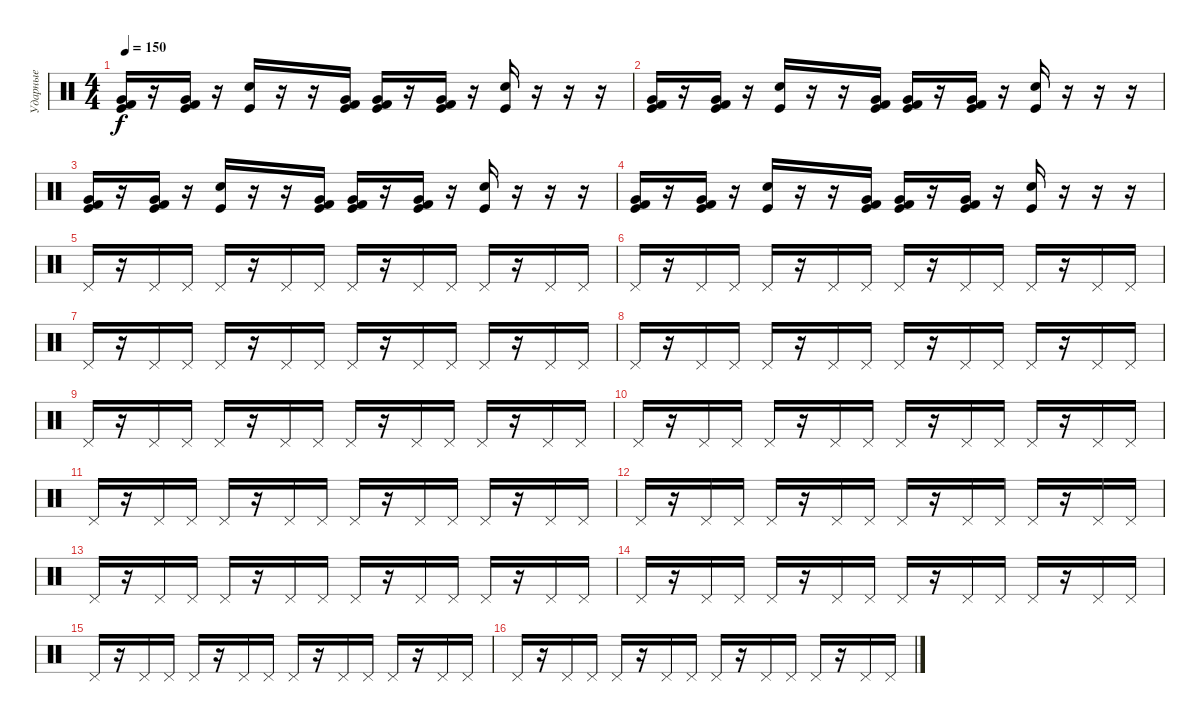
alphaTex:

\track ("Ударные" "Ударные") {instrument percussion}
\staff {score}
\articulation defaults
\ts (4 4)
\tempo 150
\clef neutral
\ks c
("Very Low Tom (hit)" "Kick (hit) 2" "Kick (hit)").16{dy f} r.16 ("Very Low Tom (hit)" "Kick (hit) 2" "Kick (hit)").16 r.16 ("Electric Snare (hit)" "Kick (hit)").16 r.16 r.16 ("Very Low Tom (hit)" "Kick (hit) 2" "Kick (hit)").16 ("Very Low Tom (hit)" "Kick (hit) 2" "Kick (hit)").16 r.16 ("Very Low Tom (hit)" "Kick (hit) 2" "Kick (hit)").16 r.16 ("Electric Snare (hit)" "Kick (hit)").16 r.16 r.16 r.16 |
("Very Low Tom (hit)" "Kick (hit) 2" "Kick (hit)").16 r.16 ("Very Low Tom (hit)" "Kick (hit) 2" "Kick (hit)").16 r.16 ("Electric Snare (hit)" "Kick (hit)").16 r.16 r.16 ("Very Low Tom (hit)" "Kick (hit) 2" "Kick (hit)").16 ("Very Low Tom (hit)" "Kick (hit) 2" "Kick (hit)").16 r.16 ("Very Low Tom (hit)" "Kick (hit) 2" "Kick (hit)").16 r.16 ("Electric Snare (hit)" "Kick (hit)").16 r.16 r.16 r.16 |
("Very Low Tom (hit)" "Kick (hit) 2" "Kick (hit)").16 r.16 ("Very Low Tom (hit)" "Kick (hit) 2" "Kick (hit)").16 r.16 ("Electric Snare (hit)" "Kick (hit)").16 r.16 r.16 ("Very Low Tom (hit)" "Kick (hit) 2" "Kick (hit)").16 ("Very Low Tom (hit)" "Kick (hit) 2" "Kick (hit)").16 r.16 ("Very Low Tom (hit)" "Kick (hit) 2" "Kick (hit)").16 r.16 ("Electric Snare (hit)" "Kick (hit)").16 r.16 r.16 r.16 |
("Very Low Tom (hit)" "Kick (hit) 2" "Kick (hit)").16 r.16 ("Very Low Tom (hit)" "Kick (hit) 2" "Kick (hit)").16 r.16 ("Electric Snare (hit)" "Kick (hit)").16 r.16 r.16 ("Very Low Tom (hit)" "Kick (hit) 2" "Kick (hit)").16 ("Very Low Tom (hit)" "Kick (hit) 2" "Kick (hit)").16 r.16 ("Very Low Tom (hit)" "Kick (hit) 2" "Kick (hit)").16 r.16 ("Electric Snare (hit)" "Kick (hit)").16 r.16 r.16 r.16 |
"Pedal Hi-Hat (hit)".16{volume 6} r.16 "Pedal Hi-Hat (hit)".16 "Pedal Hi-Hat (hit)".16 "Pedal Hi-Hat (hit)".16 r.16 "Pedal Hi-Hat (hit)".16 "Pedal Hi-Hat (hit)".16 "Pedal Hi-Hat (hit)".16 r.16 "Pedal Hi-Hat (hit)".16 "Pedal Hi-Hat (hit)".16 "Pedal Hi-Hat (hit)".16 r.16 "Pedal Hi-Hat (hit)".16 "Pedal Hi-Hat (hit)".16 |
"Pedal Hi-Hat (hit)".16 r.16 "Pedal Hi-Hat (hit)".16 "Pedal Hi-Hat (hit)".16 "Pedal Hi-Hat (hit)".16 r.16 "Pedal Hi-Hat (hit)".16 "Pedal Hi-Hat (hit)".16 "Pedal Hi-Hat (hit)".16 r.16 "Pedal Hi-Hat (hit)".16 "Pedal Hi-Hat (hit)".16 "Pedal Hi-Hat (hit)".16 r.16 "Pedal Hi-Hat (hit)".16 "Pedal Hi-Hat (hit)".16 |
"Pedal Hi-Hat (hit)".16 r.16 "Pedal Hi-Hat (hit)".16 "Pedal Hi-Hat (hit)".16 "Pedal Hi-Hat (hit)".16 r.16 "Pedal Hi-Hat (hit)".16 "Pedal Hi-Hat (hit)".16 "Pedal Hi-Hat (hit)".16 r.16 "Pedal Hi-Hat (hit)".16 "Pedal Hi-Hat (hit)".16 "Pedal Hi-Hat (hit)".16 r.16 "Pedal Hi-Hat (hit)".16 "Pedal Hi-Hat (hit)".16 |
"Pedal Hi-Hat (hit)".16 r.16 "Pedal Hi-Hat (hit)".16 "Pedal Hi-Hat (hit)".16 "Pedal Hi-Hat (hit)".16 r.16 "Pedal Hi-Hat (hit)".16 "Pedal Hi-Hat (hit)".16 "Pedal Hi-Hat (hit)".16 r.16 "Pedal Hi-Hat (hit)".16 "Pedal Hi-Hat (hit)".16 "Pedal Hi-Hat (hit)".16 r.16 "Pedal Hi-Hat (hit)".16 "Pedal Hi-Hat (hit)".16 |
"Pedal Hi-Hat (hit)".16 r.16 "Pedal Hi-Hat (hit)".16 "Pedal Hi-Hat (hit)".16 "Pedal Hi-Hat (hit)".16 r.16 "Pedal Hi-Hat (hit)".16 "Pedal Hi-Hat (hit)".16 "Pedal Hi-Hat (hit)".16 r.16 "Pedal Hi-Hat (hit)".16 "Pedal Hi-Hat (hit)".16 "Pedal Hi-Hat (hit)".16 r.16 "Pedal Hi-Hat (hit)".16 "Pedal Hi-Hat (hit)".16 |
"Pedal Hi-Hat (hit)".16 r.16 "Pedal Hi-Hat (hit)".16 "Pedal Hi-Hat (hit)".16 "Pedal Hi-Hat (hit)".16 r.16 "Pedal Hi-Hat (hit)".16 "Pedal Hi-Hat (hit)".16 "Pedal Hi-Hat (hit)".16 r.16 "Pedal Hi-Hat (hit)".16 "Pedal Hi-Hat (hit)".16 "Pedal Hi-Hat (hit)".16 r.16 "Pedal Hi-Hat (hit)".16 "Pedal Hi-Hat (hit)".16 |
"Pedal Hi-Hat (hit)".16 r.16 "Pedal Hi-Hat (hit)".16 "Pedal Hi-Hat (hit)".16 "Pedal Hi-Hat (hit)".16 r.16 "Pedal Hi-Hat (hit)".16 "Pedal Hi-Hat (hit)".16 "Pedal Hi-Hat (hit)".16 r.16 "Pedal Hi-Hat (hit)".16 "Pedal Hi-Hat (hit)".16 "Pedal Hi-Hat (hit)".16 r.16 "Pedal Hi-Hat (hit)".16 "Pedal Hi-Hat (hit)".16 |
"Pedal Hi-Hat (hit)".16 r.16 "Pedal Hi-Hat (hit)".16 "Pedal Hi-Hat (hit)".16 "Pedal Hi-Hat (hit)".16 r.16 "Pedal Hi-Hat (hit)".16 "Pedal Hi-Hat (hit)".16 "Pedal Hi-Hat (hit)".16 r.16 "Pedal Hi-Hat (hit)".16 "Pedal Hi-Hat (hit)".16 "Pedal Hi-Hat (hit)".16 r.16 "Pedal Hi-Hat (hit)".16 "Pedal Hi-Hat (hit)".16 |
"Pedal Hi-Hat (hit)".16 r.16 "Pedal Hi-Hat (hit)".16 "Pedal Hi-Hat (hit)".16 "Pedal Hi-Hat (hit)".16 r.16 "Pedal Hi-Hat (hit)".16 "Pedal Hi-Hat (hit)".16 "Pedal Hi-Hat (hit)".16 r.16 "Pedal Hi-Hat (hit)".16 "Pedal Hi-Hat (hit)".16 "Pedal Hi-Hat (hit)".16 r.16 "Pedal Hi-Hat (hit)".16 "Pedal Hi-Hat (hit)".16 |
"Pedal Hi-Hat (hit)".16 r.16 "Pedal Hi-Hat (hit)".16 "Pedal Hi-Hat (hit)".16 "Pedal Hi-Hat (hit)".16 r.16 "Pedal Hi-Hat (hit)".16 "Pedal Hi-Hat (hit)".16 "Pedal Hi-Hat (hit)".16 r.16 "Pedal Hi-Hat (hit)".16 "Pedal Hi-Hat (hit)".16 "Pedal Hi-Hat (hit)".16 r.16 "Pedal Hi-Hat (hit)".16 "Pedal Hi-Hat (hit)".16 |
"Pedal Hi-Hat (hit)".16 r.16 "Pedal Hi-Hat (hit)".16 "Pedal Hi-Hat (hit)".16 "Pedal Hi-Hat (hit)".16 r.16 "Pedal Hi-Hat (hit)".16 "Pedal Hi-Hat (hit)".16 "Pedal Hi-Hat (hit)".16 r.16 "Pedal Hi-Hat (hit)".16 "Pedal Hi-Hat (hit)".16 "Pedal Hi-Hat (hit)".16 r.16 "Pedal Hi-Hat (hit)".16 "Pedal Hi-Hat (hit)".16 |
"Pedal Hi-Hat (hit)".16 r.16 "Pedal Hi-Hat (hit)".16 "Pedal Hi-Hat (hit)".16 "Pedal Hi-Hat (hit)".16 r.16 "Pedal Hi-Hat (hit)".16 "Pedal Hi-Hat (hit)".16 "Pedal Hi-Hat (hit)".16 r.16 "Pedal Hi-Hat (hit)".16 "Pedal Hi-Hat (hit)".16 "Pedal Hi-Hat (hit)".16 r.16 "Pedal Hi-Hat (hit)".16 "Pedal Hi-Hat (hit)".16
